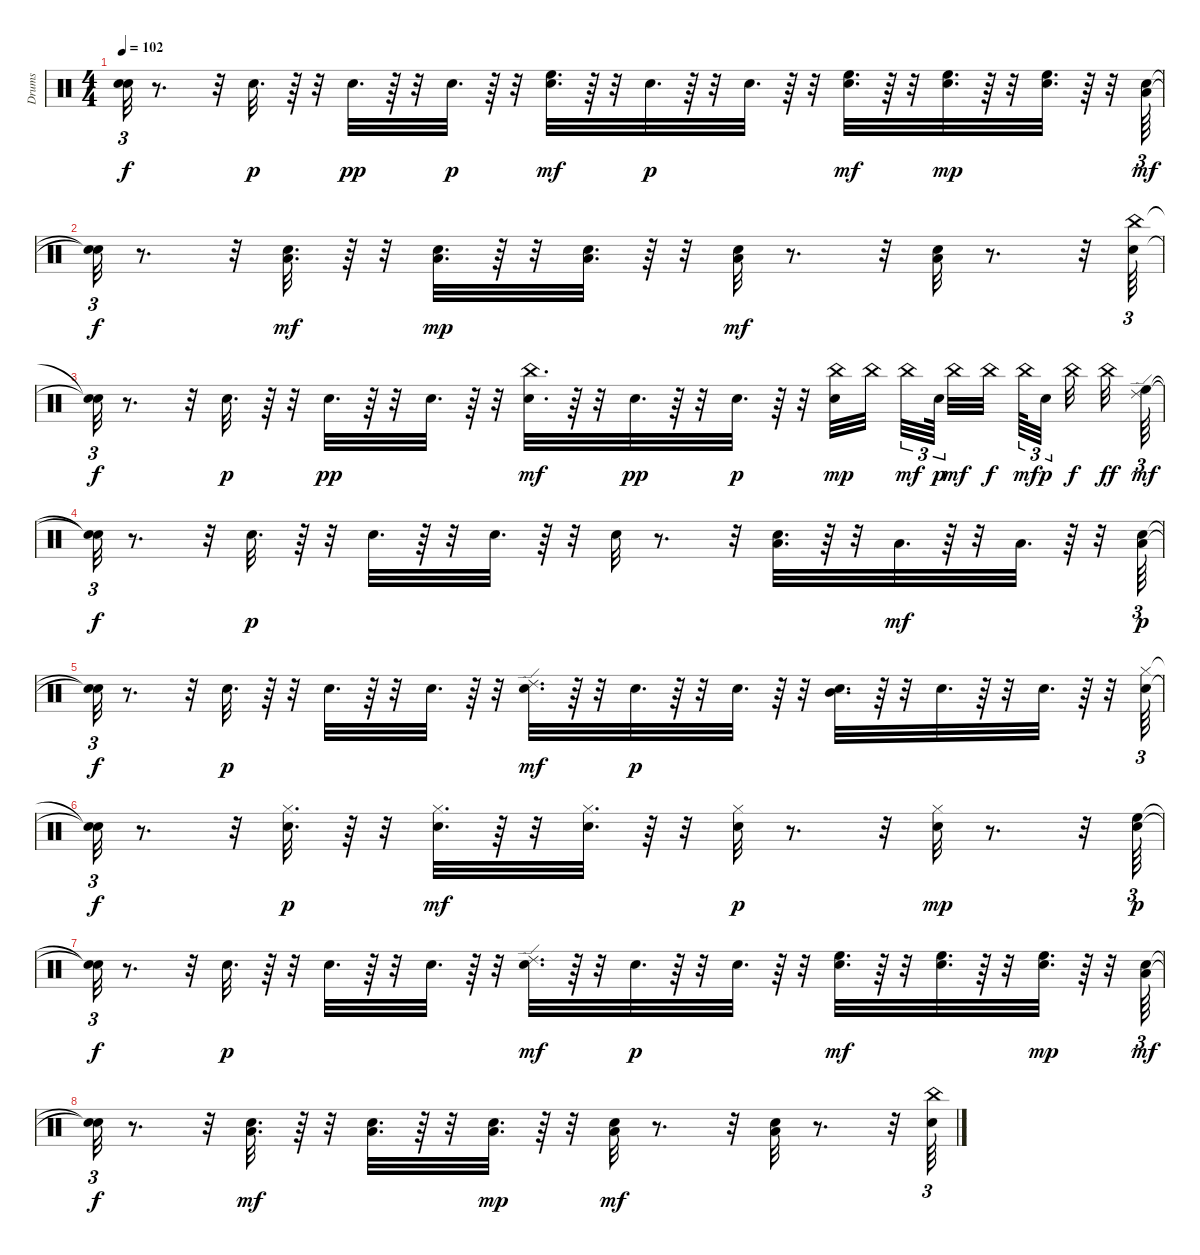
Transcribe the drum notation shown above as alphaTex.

\track ("Drums   " "Drums   ") {instrument percussion}
\staff {score}
\articulation defaults
\ts (4 4)
\tempo 102
\clef neutral
\ks c
("Snare (hit)"{t} "Snare (hit)"{t}).32{tu (3 2) dy f} r.8{d} r.32 "Electric Snare (hit)".32{d dy p} r.64 r.32 "Electric Snare (hit)".32{d dy pp} r.64 r.32 "Electric Snare (hit)".32{d dy p} r.64 r.32 ("Electric Snare (hit)" "High Floor Tom (hit)").32{d dy mf} r.64 r.32 "Electric Snare (hit)".32{d dy p} r.64 r.32 "Electric Snare (hit)".32{d} r.64 r.32 ("Electric Snare (hit)" "High Floor Tom (hit)").32{d dy mf} r.64 r.32 ("Electric Snare (hit)" "High Floor Tom (hit)").32{d dy mp} r.64 r.32 ("Electric Snare (hit)" "High Floor Tom (hit)").32{d} r.64 r.32 ("Electric Snare (hit)" "Low Tom (hit)").64{tu (3 2) dy mf} |
("Snare (hit)"{t} "Snare (hit)"{t}).32{tu (3 2) dy f} r.8{d} r.32 ("Electric Snare (hit)" "Low Tom (hit)").32{d dy mf} r.64 r.32 ("Electric Snare (hit)" "Low Tom (hit)").32{d dy mp} r.64 r.32 ("Electric Snare (hit)" "Low Tom (hit)").32{d} r.64 r.32 ("Electric Snare (hit)" "Low Tom (hit)").32{dy mf} r.8{d} r.32 ("Electric Snare (hit)" "Low Tom (hit)").32 r.8{d} r.32 ("Electric Snare (hit)" "China (hit)").64{tu (3 2)} |
("Snare (hit)"{t} "Snare (hit)"{t}).32{tu (3 2) dy f} r.8{d} r.32 "Electric Snare (hit)".32{d dy p} r.64 r.32 "Electric Snare (hit)".32{d dy pp} r.64 r.32 "Electric Snare (hit)".32{d} r.64 r.32 ("Electric Snare (hit)" "China (hit)").32{d dy mf} r.64 r.32 "Electric Snare (hit)".32{d dy pp} r.64 r.32 "Electric Snare (hit)".32{d dy p} r.64 r.32 ("Electric Snare (hit)" "China (hit)").32{dy mp} "China (hit)".32{beam splitsecondary} "China (hit)".32{tu (3 2) dy mf} "Electric Snare (hit)".64{tu (3 2) dy p beam splitsecondary} "China (hit)".32{dy mf} "China (hit)".32{dy f beam splitsecondary} "China (hit)".64{tu (3 2) dy mf} "Electric Snare (hit)".32{tu (3 2) dy p beam splitsecondary} "China (hit)".32{dy f} "China (hit)".32{dy ff} ("High Floor Tom (hit)" "Ride (edge) 2").64{tu (3 2) dy mf} |
("Snare (hit)"{t} "Snare (hit)"{t}).32{tu (3 2) dy f} r.8{d} r.32 "Electric Snare (hit)".32{d dy p} r.64 r.32 "Electric Snare (hit)".32{d} r.64 r.32 "Electric Snare (hit)".32{d} r.64 r.32 "Electric Snare (hit)".32 r.8{d} r.32 ("Electric Snare (hit)" "Low Tom (hit)").32{d} r.64 r.32 "Low Tom (hit)".32{d dy mf} r.64 r.32 "Low Tom (hit)".32{d} r.64 r.32 ("Electric Snare (hit)" "Low Tom (hit)").64{tu (3 2) dy p} |
("Snare (hit)"{t} "Snare (hit)"{t}).32{tu (3 2) dy f} r.8{d} r.32 "Electric Snare (hit)".32{d dy p} r.64 r.32 "Electric Snare (hit)".32{d} r.64 r.32 "Electric Snare (hit)".32{d} r.64 r.32 ("Electric Snare (hit)" "Ride (edge) 2").32{d dy mf} r.64 r.32 "Electric Snare (hit)".32{d dy p} r.64 r.32 "Electric Snare (hit)".32{d} r.64 r.32 ("Electric Snare (hit)" "Mid Tom (hit)").32{d} r.64 r.32 "Electric Snare (hit)".32{d} r.64 r.32 "Electric Snare (hit)".32{d} r.64 r.32 ("Electric Snare (hit)" "Hi-Hat (closed)").64{tu (3 2)} |
("Snare (hit)"{t} "Snare (hit)"{t}).32{tu (3 2) dy f} r.8{d} r.32 ("Electric Snare (hit)" "Hi-Hat (closed)").32{d dy p} r.64 r.32 ("Electric Snare (hit)" "Hi-Hat (closed)").32{d dy mf} r.64 r.32 ("Electric Snare (hit)" "Hi-Hat (closed)").32{d} r.64 r.32 ("Electric Snare (hit)" "Hi-Hat (closed)").32{dy p} r.8{d} r.32 ("Electric Snare (hit)" "Hi-Hat (closed)").32{dy mp} r.8{d} r.32 ("Electric Snare (hit)" "High Floor Tom (hit)").64{tu (3 2) dy p} |
("Snare (hit)"{t} "Snare (hit)"{t}).32{tu (3 2) dy f} r.8{d} r.32 "Electric Snare (hit)".32{d dy p} r.64 r.32 "Electric Snare (hit)".32{d} r.64 r.32 "Electric Snare (hit)".32{d} r.64 r.32 ("Electric Snare (hit)" "Ride (edge) 2").32{d dy mf} r.64 r.32 "Electric Snare (hit)".32{d dy p} r.64 r.32 "Electric Snare (hit)".32{d} r.64 r.32 ("Electric Snare (hit)" "High Floor Tom (hit)").32{d dy mf} r.64 r.32 ("Electric Snare (hit)" "High Floor Tom (hit)").32{d} r.64 r.32 ("Electric Snare (hit)" "High Floor Tom (hit)").32{d dy mp} r.64 r.32 ("Electric Snare (hit)" "Low Tom (hit)").64{tu (3 2) dy mf} |
("Snare (hit)"{t} "Snare (hit)"{t}).32{tu (3 2) dy f} r.8{d} r.32 ("Electric Snare (hit)" "Low Tom (hit)").32{d dy mf} r.64 r.32 ("Electric Snare (hit)" "Low Tom (hit)").32{d} r.64 r.32 ("Electric Snare (hit)" "Low Tom (hit)").32{d dy mp} r.64 r.32 ("Electric Snare (hit)" "Low Tom (hit)").32{dy mf} r.8{d} r.32 ("Electric Snare (hit)" "Low Tom (hit)").32 r.8{d} r.32 ("Electric Snare (hit)" "China (hit)").64{tu (3 2)}
